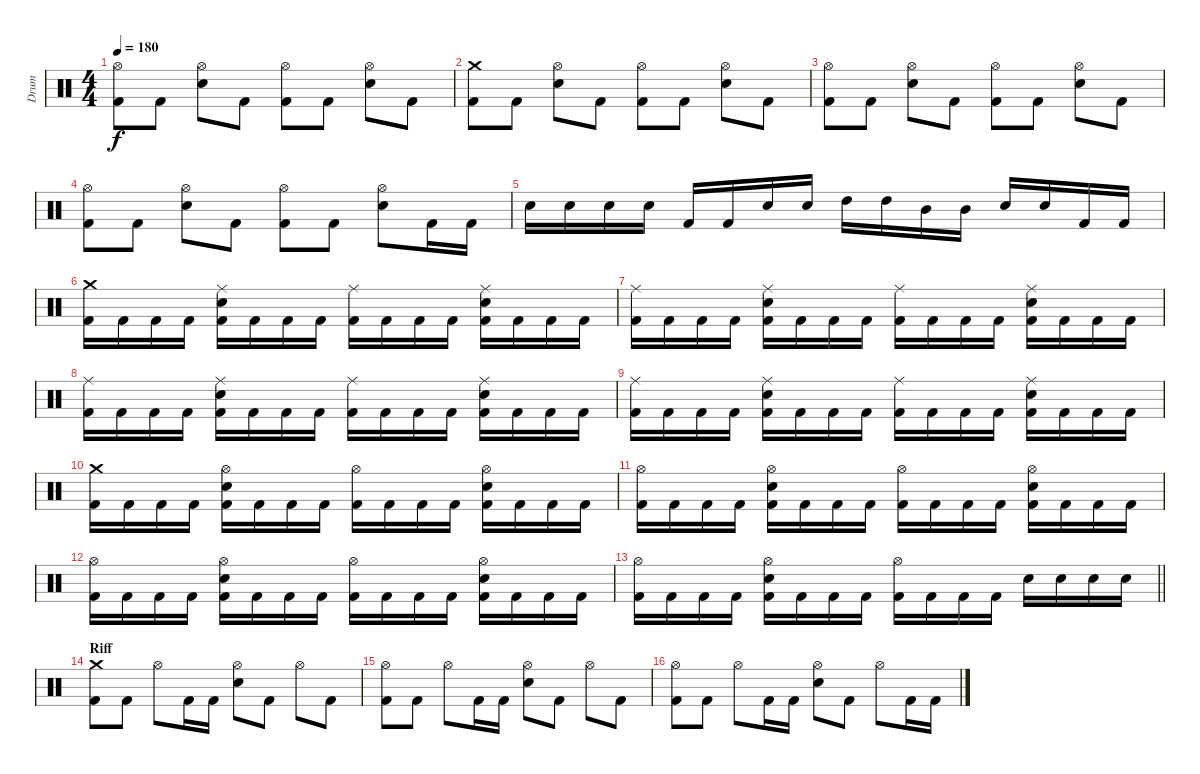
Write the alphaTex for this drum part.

\track ("Drum" "Drum") {instrument percussion}
\staff {score}
\articulation defaults
\ts (4 4)
\tempo 180
\clef neutral
\ks c
("Hi-Hat (open)" "Kick (hit) 2").8{dy f} "Kick (hit) 2".8 ("Hi-Hat (open)" "Electric Snare (hit)").8 "Kick (hit) 2".8 ("Hi-Hat (open)" "Kick (hit) 2").8 "Kick (hit) 2".8 ("Hi-Hat (open)" "Electric Snare (hit)").8 "Kick (hit) 2".8 |
("Crash medium (hit)" "Kick (hit) 2").8 "Kick (hit) 2".8 ("Hi-Hat (open)" "Electric Snare (hit)").8 "Kick (hit) 2".8 ("Hi-Hat (open)" "Kick (hit) 2").8 "Kick (hit) 2".8 ("Hi-Hat (open)" "Electric Snare (hit)").8 "Kick (hit) 2".8 |
("Hi-Hat (open)" "Kick (hit) 2").8 "Kick (hit) 2".8 ("Hi-Hat (open)" "Electric Snare (hit)").8 "Kick (hit) 2".8 ("Hi-Hat (open)" "Kick (hit) 2").8 "Kick (hit) 2".8 ("Hi-Hat (open)" "Electric Snare (hit)").8 "Kick (hit) 2".8 |
("Hi-Hat (open)" "Kick (hit) 2").8 "Kick (hit) 2".8 ("Hi-Hat (open)" "Electric Snare (hit)").8 "Kick (hit) 2".8 ("Hi-Hat (open)" "Kick (hit) 2").8 "Kick (hit) 2".8 ("Hi-Hat (open)" "Electric Snare (hit)").8 "Kick (hit) 2".16 "Kick (hit) 2".16 |
"Electric Snare (hit)".16 "Electric Snare (hit)".16 "Electric Snare (hit)".16 "Electric Snare (hit)".16 "Kick (hit) 2".16 "Kick (hit) 2".16 "Electric Snare (hit)".16 "Electric Snare (hit)".16 "High Tom (hit)".16 "High Tom (hit)".16 "Mid Tom (hit)".16 "Mid Tom (hit)".16 "Electric Snare (hit)".16 "Electric Snare (hit)".16 "Kick (hit) 2".16 "Kick (hit) 2".16 |
("Crash medium (hit)" "Kick (hit) 2").16 "Kick (hit) 2".16 "Kick (hit) 2".16 "Kick (hit) 2".16 ("Ride (middle)" "Electric Snare (hit)" "Kick (hit) 2").16 "Kick (hit) 2".16 "Kick (hit) 2".16 "Kick (hit) 2".16 ("Ride (middle)" "Kick (hit) 2").16 "Kick (hit) 2".16 "Kick (hit) 2".16 "Kick (hit) 2".16 ("Ride (middle)" "Electric Snare (hit)" "Kick (hit) 2").16 "Kick (hit) 2".16 "Kick (hit) 2".16 "Kick (hit) 2".16 |
("Ride (middle)" "Kick (hit) 2").16 "Kick (hit) 2".16 "Kick (hit) 2".16 "Kick (hit) 2".16 ("Ride (middle)" "Electric Snare (hit)" "Kick (hit) 2").16 "Kick (hit) 2".16 "Kick (hit) 2".16 "Kick (hit) 2".16 ("Ride (middle)" "Kick (hit) 2").16 "Kick (hit) 2".16 "Kick (hit) 2".16 "Kick (hit) 2".16 ("Ride (middle)" "Electric Snare (hit)" "Kick (hit) 2").16 "Kick (hit) 2".16 "Kick (hit) 2".16 "Kick (hit) 2".16 |
("Ride (middle)" "Kick (hit) 2").16 "Kick (hit) 2".16 "Kick (hit) 2".16 "Kick (hit) 2".16 ("Ride (middle)" "Electric Snare (hit)" "Kick (hit) 2").16 "Kick (hit) 2".16 "Kick (hit) 2".16 "Kick (hit) 2".16 ("Ride (middle)" "Kick (hit) 2").16 "Kick (hit) 2".16 "Kick (hit) 2".16 "Kick (hit) 2".16 ("Ride (middle)" "Electric Snare (hit)" "Kick (hit) 2").16 "Kick (hit) 2".16 "Kick (hit) 2".16 "Kick (hit) 2".16 |
("Ride (middle)" "Kick (hit) 2").16 "Kick (hit) 2".16 "Kick (hit) 2".16 "Kick (hit) 2".16 ("Ride (middle)" "Electric Snare (hit)" "Kick (hit) 2").16 "Kick (hit) 2".16 "Kick (hit) 2".16 "Kick (hit) 2".16 ("Ride (middle)" "Kick (hit) 2").16 "Kick (hit) 2".16 "Kick (hit) 2".16 "Kick (hit) 2".16 ("Ride (middle)" "Electric Snare (hit)" "Kick (hit) 2").16 "Kick (hit) 2".16 "Kick (hit) 2".16 "Kick (hit) 2".16 |
("Crash medium (hit)" "Kick (hit) 2").16 "Kick (hit) 2".16 "Kick (hit) 2".16 "Kick (hit) 2".16 ("Hi-Hat (open)" "Electric Snare (hit)" "Kick (hit) 2").16 "Kick (hit) 2".16 "Kick (hit) 2".16 "Kick (hit) 2".16 ("Hi-Hat (open)" "Kick (hit) 2").16 "Kick (hit) 2".16 "Kick (hit) 2".16 "Kick (hit) 2".16 ("Hi-Hat (open)" "Electric Snare (hit)" "Kick (hit) 2").16 "Kick (hit) 2".16 "Kick (hit) 2".16 "Kick (hit) 2".16 |
("Hi-Hat (open)" "Kick (hit) 2").16 "Kick (hit) 2".16 "Kick (hit) 2".16 "Kick (hit) 2".16 ("Hi-Hat (open)" "Electric Snare (hit)" "Kick (hit) 2").16 "Kick (hit) 2".16 "Kick (hit) 2".16 "Kick (hit) 2".16 ("Hi-Hat (open)" "Kick (hit) 2").16 "Kick (hit) 2".16 "Kick (hit) 2".16 "Kick (hit) 2".16 ("Hi-Hat (open)" "Electric Snare (hit)" "Kick (hit) 2").16 "Kick (hit) 2".16 "Kick (hit) 2".16 "Kick (hit) 2".16 |
("Hi-Hat (open)" "Kick (hit) 2").16 "Kick (hit) 2".16 "Kick (hit) 2".16 "Kick (hit) 2".16 ("Hi-Hat (open)" "Electric Snare (hit)" "Kick (hit) 2").16 "Kick (hit) 2".16 "Kick (hit) 2".16 "Kick (hit) 2".16 ("Hi-Hat (open)" "Kick (hit) 2").16 "Kick (hit) 2".16 "Kick (hit) 2".16 "Kick (hit) 2".16 ("Hi-Hat (open)" "Electric Snare (hit)" "Kick (hit) 2").16 "Kick (hit) 2".16 "Kick (hit) 2".16 "Kick (hit) 2".16 |
\barLineRight lightlight
("Hi-Hat (open)" "Kick (hit) 2").16 "Kick (hit) 2".16 "Kick (hit) 2".16 "Kick (hit) 2".16 ("Hi-Hat (open)" "Electric Snare (hit)" "Kick (hit) 2").16 "Kick (hit) 2".16 "Kick (hit) 2".16 "Kick (hit) 2".16 ("Hi-Hat (open)" "Kick (hit) 2").16 "Kick (hit) 2".16 "Kick (hit) 2".16 "Kick (hit) 2".16 "Electric Snare (hit)".16 "Electric Snare (hit)".16 "Electric Snare (hit)".16 "Electric Snare (hit)".16 |
\section ("" "Riff")
("Crash medium (hit)" "Kick (hit) 2").8 "Kick (hit) 2".8 "Hi-Hat (open)".8 "Kick (hit) 2".16 "Kick (hit) 2".16 ("Hi-Hat (open)" "Electric Snare (hit)").8 "Kick (hit) 2".8 "Hi-Hat (open)".8 "Kick (hit) 2".8 |
("Hi-Hat (open)" "Kick (hit) 2").8 "Kick (hit) 2".8 "Hi-Hat (open)".8 "Kick (hit) 2".16 "Kick (hit) 2".16 ("Hi-Hat (open)" "Electric Snare (hit)").8 "Kick (hit) 2".8 "Hi-Hat (open)".8 "Kick (hit) 2".8 |
("Hi-Hat (open)" "Kick (hit) 2").8 "Kick (hit) 2".8 "Hi-Hat (open)".8 "Kick (hit) 2".16 "Kick (hit) 2".16 ("Hi-Hat (open)" "Electric Snare (hit)").8 "Kick (hit) 2".8 "Hi-Hat (open)".8 "Kick (hit) 2".16 "Kick (hit) 2".16
